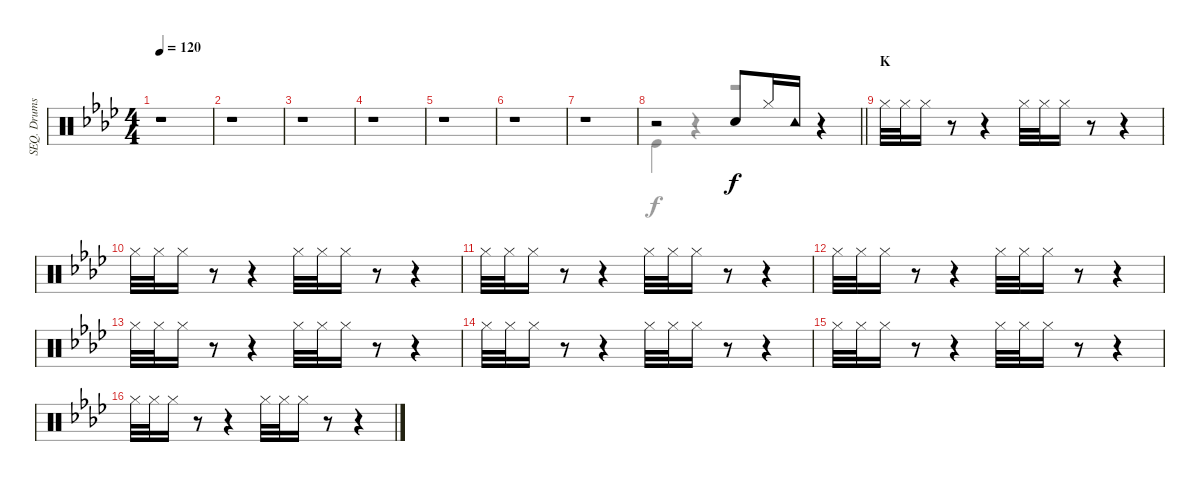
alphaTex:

\track ("SEQ. Drums" "SEQ. Drums") {instrument percussion}
\staff {score}
\articulation defaults
\voice
\ts (4 4)
\tempo 120
\clef neutral
\ks ab
r.1{dy f} |
r.1 |
r.1 |
r.1 |
r.1 |
r.1 |
r.1 |
\barLineRight lightlight
r.2 "Electric Snare (hit)".8 "Hi-Hat (closed)".16 "Tambourine (hit)".16 r.4 |
\section ("" "K")
"Hi-Hat (closed)".32 "Hi-Hat (closed)".32 "Hi-Hat (closed)".16 r.8 r.4 "Hi-Hat (closed)".32 "Hi-Hat (closed)".32 "Hi-Hat (closed)".16 r.8 r.4 |
"Hi-Hat (closed)".32 "Hi-Hat (closed)".32 "Hi-Hat (closed)".16 r.8 r.4 "Hi-Hat (closed)".32 "Hi-Hat (closed)".32 "Hi-Hat (closed)".16 r.8 r.4 |
"Hi-Hat (closed)".32 "Hi-Hat (closed)".32 "Hi-Hat (closed)".16 r.8 r.4 "Hi-Hat (closed)".32 "Hi-Hat (closed)".32 "Hi-Hat (closed)".16 r.8 r.4 |
"Hi-Hat (closed)".32 "Hi-Hat (closed)".32 "Hi-Hat (closed)".16 r.8 r.4 "Hi-Hat (closed)".32 "Hi-Hat (closed)".32 "Hi-Hat (closed)".16 r.8 r.4 |
"Hi-Hat (closed)".32 "Hi-Hat (closed)".32 "Hi-Hat (closed)".16 r.8 r.4 "Hi-Hat (closed)".32 "Hi-Hat (closed)".32 "Hi-Hat (closed)".16 r.8 r.4 |
"Hi-Hat (closed)".32 "Hi-Hat (closed)".32 "Hi-Hat (closed)".16 r.8 r.4 "Hi-Hat (closed)".32 "Hi-Hat (closed)".32 "Hi-Hat (closed)".16 r.8 r.4 |
"Hi-Hat (closed)".32 "Hi-Hat (closed)".32 "Hi-Hat (closed)".16 r.8 r.4 "Hi-Hat (closed)".32 "Hi-Hat (closed)".32 "Hi-Hat (closed)".16 r.8 r.4 |
"Hi-Hat (closed)".32 "Hi-Hat (closed)".32 "Hi-Hat (closed)".16 r.8 r.4 "Hi-Hat (closed)".32 "Hi-Hat (closed)".32 "Hi-Hat (closed)".16 r.8 r.4
\voice
\clef neutral
\ottava regular
\simile none
\ks ab
|
|
|
|
|
|
|
\barLineRight lightlight "Kick (hit)".4
r.4 r.2 |
|
|
|
|
|
|
|
